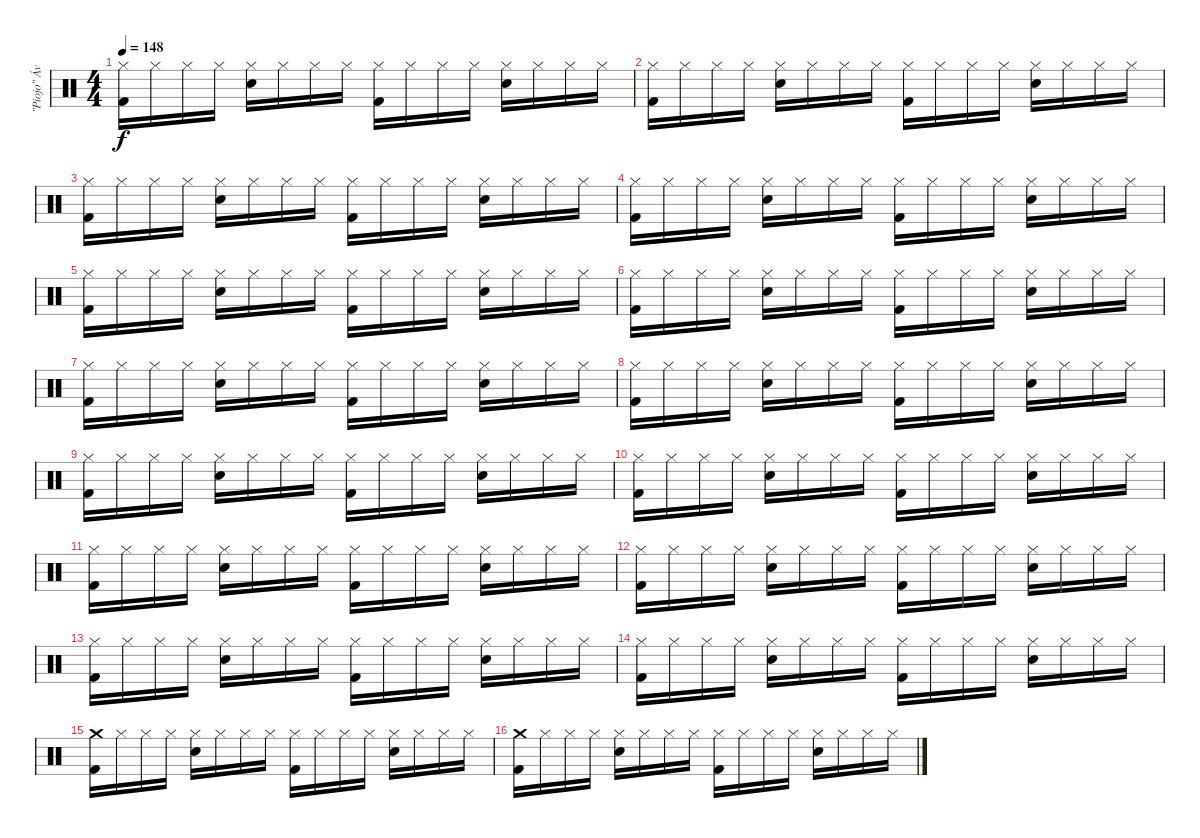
\track ("\"Piojo\" Ávalos" "\"Piojo\" Áv") {instrument percussion}
\staff {score}
\articulation defaults
\ts (4 4)
\tempo 148
\clef neutral
\ks c
("Hi-Hat (closed)" "Kick (hit) 2").16{dy f} "Hi-Hat (closed)".16 "Hi-Hat (closed)".16 "Hi-Hat (closed)".16 ("Hi-Hat (closed)" "Electric Snare (hit)").16 "Hi-Hat (closed)".16 "Hi-Hat (closed)".16 "Hi-Hat (closed)".16 ("Hi-Hat (closed)" "Kick (hit) 2").16 "Hi-Hat (closed)".16 "Hi-Hat (closed)".16 "Hi-Hat (closed)".16 ("Hi-Hat (closed)" "Electric Snare (hit)").16 "Hi-Hat (closed)".16 "Hi-Hat (closed)".16 "Hi-Hat (closed)".16 |
("Hi-Hat (closed)" "Kick (hit) 2").16 "Hi-Hat (closed)".16 "Hi-Hat (closed)".16 "Hi-Hat (closed)".16 ("Hi-Hat (closed)" "Electric Snare (hit)").16 "Hi-Hat (closed)".16 "Hi-Hat (closed)".16 "Hi-Hat (closed)".16 ("Hi-Hat (closed)" "Kick (hit) 2").16 "Hi-Hat (closed)".16 "Hi-Hat (closed)".16 "Hi-Hat (closed)".16 ("Hi-Hat (closed)" "Electric Snare (hit)").16 "Hi-Hat (closed)".16 "Hi-Hat (closed)".16 "Hi-Hat (closed)".16 |
("Hi-Hat (closed)" "Kick (hit) 2").16 "Hi-Hat (closed)".16 "Hi-Hat (closed)".16 "Hi-Hat (closed)".16 ("Hi-Hat (closed)" "Electric Snare (hit)").16 "Hi-Hat (closed)".16 "Hi-Hat (closed)".16 "Hi-Hat (closed)".16 ("Hi-Hat (closed)" "Kick (hit) 2").16 "Hi-Hat (closed)".16 "Hi-Hat (closed)".16 "Hi-Hat (closed)".16 ("Hi-Hat (closed)" "Electric Snare (hit)").16 "Hi-Hat (closed)".16 "Hi-Hat (closed)".16 "Hi-Hat (closed)".16 |
("Hi-Hat (closed)" "Kick (hit) 2").16 "Hi-Hat (closed)".16 "Hi-Hat (closed)".16 "Hi-Hat (closed)".16 ("Hi-Hat (closed)" "Electric Snare (hit)").16 "Hi-Hat (closed)".16 "Hi-Hat (closed)".16 "Hi-Hat (closed)".16 ("Hi-Hat (closed)" "Kick (hit) 2").16 "Hi-Hat (closed)".16 "Hi-Hat (closed)".16 "Hi-Hat (closed)".16 ("Hi-Hat (closed)" "Electric Snare (hit)").16 "Hi-Hat (closed)".16 "Hi-Hat (closed)".16 "Hi-Hat (closed)".16 |
("Hi-Hat (closed)" "Kick (hit) 2").16 "Hi-Hat (closed)".16 "Hi-Hat (closed)".16 "Hi-Hat (closed)".16 ("Hi-Hat (closed)" "Electric Snare (hit)").16 "Hi-Hat (closed)".16 "Hi-Hat (closed)".16 "Hi-Hat (closed)".16 ("Hi-Hat (closed)" "Kick (hit) 2").16 "Hi-Hat (closed)".16 "Hi-Hat (closed)".16 "Hi-Hat (closed)".16 ("Hi-Hat (closed)" "Electric Snare (hit)").16 "Hi-Hat (closed)".16 "Hi-Hat (closed)".16 "Hi-Hat (closed)".16 |
("Hi-Hat (closed)" "Kick (hit) 2").16 "Hi-Hat (closed)".16 "Hi-Hat (closed)".16 "Hi-Hat (closed)".16 ("Hi-Hat (closed)" "Electric Snare (hit)").16 "Hi-Hat (closed)".16 "Hi-Hat (closed)".16 "Hi-Hat (closed)".16 ("Hi-Hat (closed)" "Kick (hit) 2").16 "Hi-Hat (closed)".16 "Hi-Hat (closed)".16 "Hi-Hat (closed)".16 ("Hi-Hat (closed)" "Electric Snare (hit)").16 "Hi-Hat (closed)".16 "Hi-Hat (closed)".16 "Hi-Hat (closed)".16 |
("Hi-Hat (closed)" "Kick (hit) 2").16 "Hi-Hat (closed)".16 "Hi-Hat (closed)".16 "Hi-Hat (closed)".16 ("Hi-Hat (closed)" "Electric Snare (hit)").16 "Hi-Hat (closed)".16 "Hi-Hat (closed)".16 "Hi-Hat (closed)".16 ("Hi-Hat (closed)" "Kick (hit) 2").16 "Hi-Hat (closed)".16 "Hi-Hat (closed)".16 "Hi-Hat (closed)".16 ("Hi-Hat (closed)" "Electric Snare (hit)").16 "Hi-Hat (closed)".16 "Hi-Hat (closed)".16 "Hi-Hat (closed)".16 |
("Hi-Hat (closed)" "Kick (hit) 2").16 "Hi-Hat (closed)".16 "Hi-Hat (closed)".16 "Hi-Hat (closed)".16 ("Hi-Hat (closed)" "Electric Snare (hit)").16 "Hi-Hat (closed)".16 "Hi-Hat (closed)".16 "Hi-Hat (closed)".16 ("Hi-Hat (closed)" "Kick (hit) 2").16 "Hi-Hat (closed)".16 "Hi-Hat (closed)".16 "Hi-Hat (closed)".16 ("Hi-Hat (closed)" "Electric Snare (hit)").16 "Hi-Hat (closed)".16 "Hi-Hat (closed)".16 "Hi-Hat (closed)".16 |
("Hi-Hat (closed)" "Kick (hit) 2").16 "Hi-Hat (closed)".16 "Hi-Hat (closed)".16 "Hi-Hat (closed)".16 ("Hi-Hat (closed)" "Electric Snare (hit)").16 "Hi-Hat (closed)".16 "Hi-Hat (closed)".16 "Hi-Hat (closed)".16 ("Hi-Hat (closed)" "Kick (hit) 2").16 "Hi-Hat (closed)".16 "Hi-Hat (closed)".16 "Hi-Hat (closed)".16 ("Hi-Hat (closed)" "Electric Snare (hit)").16 "Hi-Hat (closed)".16 "Hi-Hat (closed)".16 "Hi-Hat (closed)".16 |
("Hi-Hat (closed)" "Kick (hit) 2").16 "Hi-Hat (closed)".16 "Hi-Hat (closed)".16 "Hi-Hat (closed)".16 ("Hi-Hat (closed)" "Electric Snare (hit)").16 "Hi-Hat (closed)".16 "Hi-Hat (closed)".16 "Hi-Hat (closed)".16 ("Hi-Hat (closed)" "Kick (hit) 2").16 "Hi-Hat (closed)".16 "Hi-Hat (closed)".16 "Hi-Hat (closed)".16 ("Hi-Hat (closed)" "Electric Snare (hit)").16 "Hi-Hat (closed)".16 "Hi-Hat (closed)".16 "Hi-Hat (closed)".16 |
("Hi-Hat (closed)" "Kick (hit) 2").16 "Hi-Hat (closed)".16 "Hi-Hat (closed)".16 "Hi-Hat (closed)".16 ("Hi-Hat (closed)" "Electric Snare (hit)").16 "Hi-Hat (closed)".16 "Hi-Hat (closed)".16 "Hi-Hat (closed)".16 ("Hi-Hat (closed)" "Kick (hit) 2").16 "Hi-Hat (closed)".16 "Hi-Hat (closed)".16 "Hi-Hat (closed)".16 ("Hi-Hat (closed)" "Electric Snare (hit)").16 "Hi-Hat (closed)".16 "Hi-Hat (closed)".16 "Hi-Hat (closed)".16 |
("Hi-Hat (closed)" "Kick (hit) 2").16 "Hi-Hat (closed)".16 "Hi-Hat (closed)".16 "Hi-Hat (closed)".16 ("Hi-Hat (closed)" "Electric Snare (hit)").16 "Hi-Hat (closed)".16 "Hi-Hat (closed)".16 "Hi-Hat (closed)".16 ("Hi-Hat (closed)" "Kick (hit) 2").16 "Hi-Hat (closed)".16 "Hi-Hat (closed)".16 "Hi-Hat (closed)".16 ("Hi-Hat (closed)" "Electric Snare (hit)").16 "Hi-Hat (closed)".16 "Hi-Hat (closed)".16 "Hi-Hat (closed)".16 |
("Hi-Hat (closed)" "Kick (hit) 2").16 "Hi-Hat (closed)".16 "Hi-Hat (closed)".16 "Hi-Hat (closed)".16 ("Hi-Hat (closed)" "Electric Snare (hit)").16 "Hi-Hat (closed)".16 "Hi-Hat (closed)".16 "Hi-Hat (closed)".16 ("Hi-Hat (closed)" "Kick (hit) 2").16 "Hi-Hat (closed)".16 "Hi-Hat (closed)".16 "Hi-Hat (closed)".16 ("Hi-Hat (closed)" "Electric Snare (hit)").16 "Hi-Hat (closed)".16 "Hi-Hat (closed)".16 "Hi-Hat (closed)".16 |
("Hi-Hat (closed)" "Kick (hit) 2").16 "Hi-Hat (closed)".16 "Hi-Hat (closed)".16 "Hi-Hat (closed)".16 ("Hi-Hat (closed)" "Electric Snare (hit)").16 "Hi-Hat (closed)".16 "Hi-Hat (closed)".16 "Hi-Hat (closed)".16 ("Hi-Hat (closed)" "Kick (hit) 2").16 "Hi-Hat (closed)".16 "Hi-Hat (closed)".16 "Hi-Hat (closed)".16 ("Hi-Hat (closed)" "Electric Snare (hit)").16 "Hi-Hat (closed)".16 "Hi-Hat (closed)".16 "Hi-Hat (closed)".16 |
("Crash medium (hit)" "Kick (hit) 2").16 "Hi-Hat (closed)".16 "Hi-Hat (closed)".16 "Hi-Hat (closed)".16 ("Hi-Hat (closed)" "Electric Snare (hit)").16 "Hi-Hat (closed)".16 "Hi-Hat (closed)".16 "Hi-Hat (closed)".16 ("Hi-Hat (closed)" "Kick (hit) 2").16 "Hi-Hat (closed)".16 "Hi-Hat (closed)".16 "Hi-Hat (closed)".16 ("Hi-Hat (closed)" "Electric Snare (hit)").16 "Hi-Hat (closed)".16 "Hi-Hat (closed)".16 "Hi-Hat (closed)".16 |
("Crash medium (hit)" "Kick (hit) 2").16 "Hi-Hat (closed)".16 "Hi-Hat (closed)".16 "Hi-Hat (closed)".16 ("Hi-Hat (closed)" "Electric Snare (hit)").16 "Hi-Hat (closed)".16 "Hi-Hat (closed)".16 "Hi-Hat (closed)".16 ("Hi-Hat (closed)" "Kick (hit) 2").16 "Hi-Hat (closed)".16 "Hi-Hat (closed)".16 "Hi-Hat (closed)".16 ("Hi-Hat (closed)" "Electric Snare (hit)").16 "Hi-Hat (closed)".16 "Hi-Hat (closed)".16 "Hi-Hat (closed)".16
